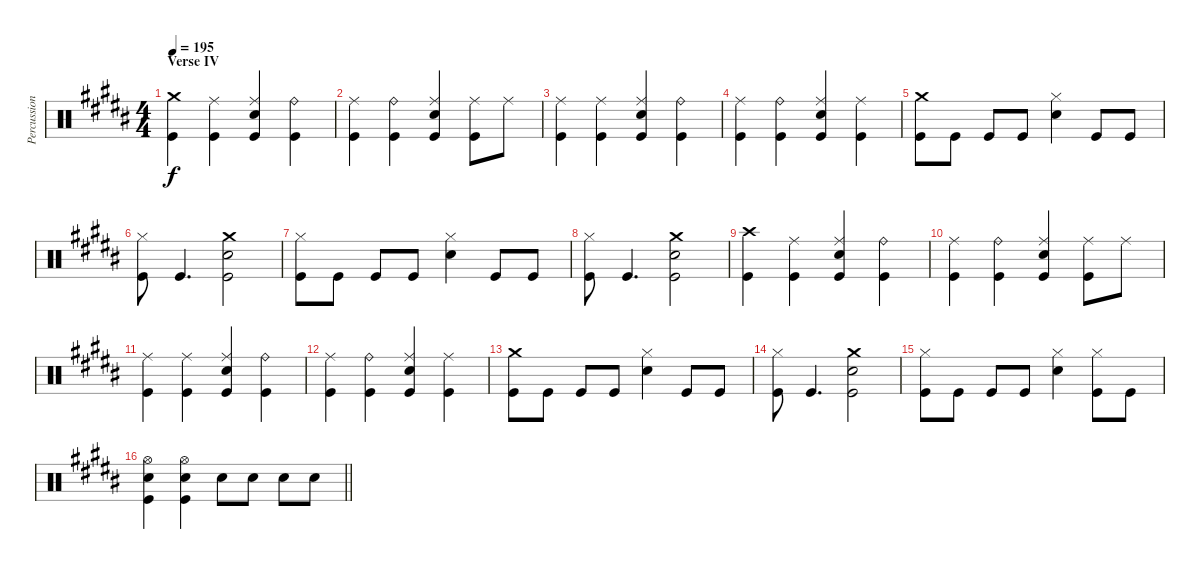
\track ("Percussion" "Percussion") {instrument percussion}
\staff {score}
\articulation defaults
\ts (4 4)
\section ("" "Verse IV")
\tempo 195
\clef neutral
\ks b
("Crash medium (hit)" "Kick (hit)").4{dy f volume 13} ("Ride (middle)" "Kick (hit)").4 ("Ride (middle)" "Electric Snare (hit)" "Kick (hit)").4 ("Ride (bell)" "Kick (hit)").4 |
("Ride (middle)" "Kick (hit)").4 ("Ride (bell)" "Kick (hit)").4 ("Ride (middle)" "Electric Snare (hit)" "Kick (hit)").4 ("Ride (middle)" "Kick (hit)").8 "Ride (middle)".8 |
("Ride (middle)" "Kick (hit)").4 ("Ride (middle)" "Kick (hit)").4 ("Ride (middle)" "Electric Snare (hit)" "Kick (hit)").4 ("Ride (bell)" "Kick (hit)").4 |
("Ride (middle)" "Kick (hit)").4 ("Ride (bell)" "Kick (hit)").4 ("Ride (middle)" "Electric Snare (hit)" "Kick (hit)").4 ("Ride (middle)" "Kick (hit)").4 |
("Crash medium (hit)" "Kick (hit)").8 "Kick (hit)".8 "Kick (hit)".8 "Kick (hit)".8 ("Hi-Hat (closed)" "Electric Snare (hit)").4 "Kick (hit)".8 "Kick (hit)".8 |
("Hi-Hat (closed)" "Kick (hit)").8 "Kick (hit)".4{d} ("Crash medium (hit)" "Electric Snare (hit)" "Kick (hit)").2 |
("Hi-Hat (closed)" "Kick (hit)").8 "Kick (hit)".8 "Kick (hit)".8 "Kick (hit)".8 ("Hi-Hat (closed)" "Electric Snare (hit)").4 "Kick (hit)".8 "Kick (hit)".8 |
("Hi-Hat (closed)" "Kick (hit)").8 "Kick (hit)".4{d} ("Crash medium (hit)" "Electric Snare (hit)" "Kick (hit)").2 |
("Crash high (hit)" "Kick (hit)").4 ("Ride (middle)" "Kick (hit)").4 ("Ride (middle)" "Electric Snare (hit)" "Kick (hit)").4 ("Ride (bell)" "Kick (hit)").4 |
("Ride (middle)" "Kick (hit)").4 ("Ride (bell)" "Kick (hit)").4 ("Ride (middle)" "Electric Snare (hit)" "Kick (hit)").4 ("Ride (middle)" "Kick (hit)").8 "Ride (middle)".8 |
("Ride (middle)" "Kick (hit)").4 ("Ride (middle)" "Kick (hit)").4 ("Ride (middle)" "Electric Snare (hit)" "Kick (hit)").4 ("Ride (bell)" "Kick (hit)").4 |
("Ride (middle)" "Kick (hit)").4 ("Ride (bell)" "Kick (hit)").4 ("Ride (middle)" "Electric Snare (hit)" "Kick (hit)").4 ("Ride (middle)" "Kick (hit)").4 |
("Crash medium (hit)" "Kick (hit)").8 "Kick (hit)".8 "Kick (hit)".8 "Kick (hit)".8 ("Hi-Hat (closed)" "Electric Snare (hit)").4 "Kick (hit)".8 "Kick (hit)".8 |
("Hi-Hat (closed)" "Kick (hit)").8 "Kick (hit)".4{d} ("Crash medium (hit)" "Electric Snare (hit)" "Kick (hit)").2 |
("Hi-Hat (closed)" "Kick (hit)").8 "Kick (hit)".8 "Kick (hit)".8 "Kick (hit)".8 ("Hi-Hat (closed)" "Electric Snare (hit)").4 ("Hi-Hat (closed)" "Kick (hit)").8 "Kick (hit)".8 |
\barLineRight lightlight
("Hi-Hat (open)" "Electric Snare (hit)" "Kick (hit)").4 ("Hi-Hat (open)" "Electric Snare (hit)" "Kick (hit)").4 "Electric Snare (hit)".8 "Electric Snare (hit)".8 "Electric Snare (hit)".8 "Electric Snare (hit)".8
